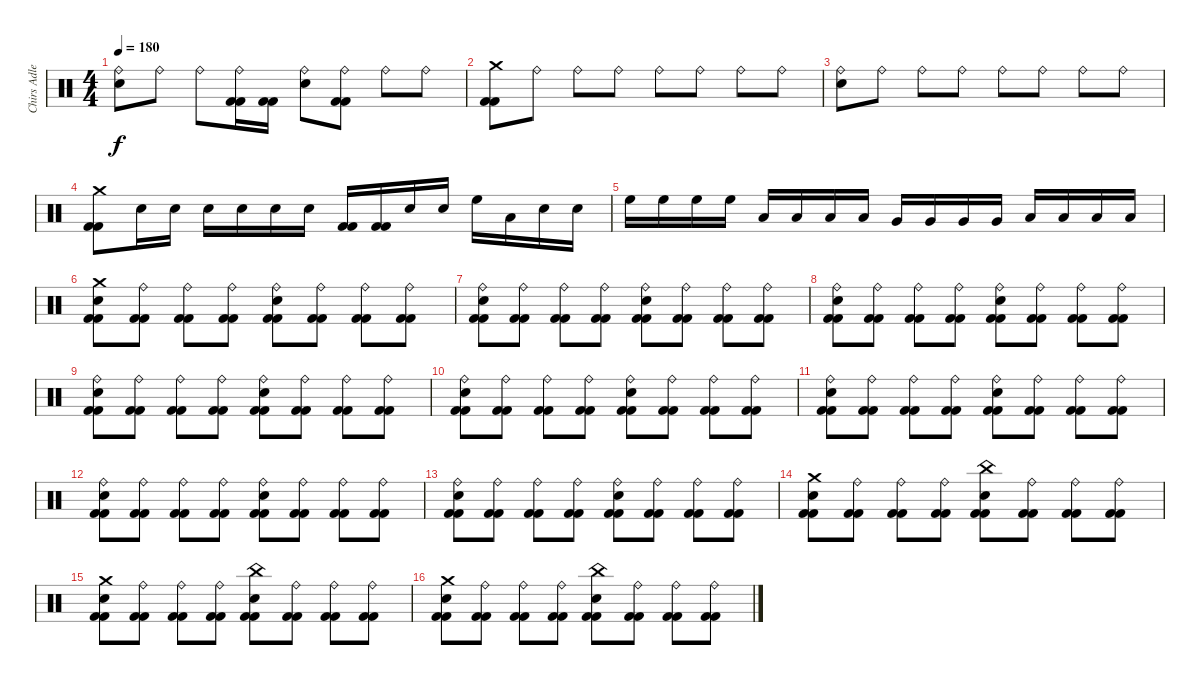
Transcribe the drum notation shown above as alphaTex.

\track ("Chirs Adler" "Chirs Adle") {instrument percussion}
\staff {score}
\articulation defaults
\ts (4 4)
\tempo 180
\clef neutral
\ks c
("Ride (bell)" "Electric Snare (hit)").8{dy f} "Ride (bell)".8 "Ride (bell)".8 ("Ride (bell)" "Kick (hit) 2" "Kick (hit) 2").16 ("Kick (hit) 2" "Kick (hit) 2").16 ("Ride (bell)" "Electric Snare (hit)").8 ("Ride (bell)" "Kick (hit) 2" "Kick (hit) 2").8 "Ride (bell)".8 "Ride (bell)".8 |
("Crash medium (hit)" "Kick (hit) 2" "Kick (hit) 2").8 "Ride (bell)".8 "Ride (bell)".8 "Ride (bell)".8 "Ride (bell)".8 "Ride (bell)".8 "Ride (bell)".8 "Ride (bell)".8 |
("Ride (bell)" "Electric Snare (hit)").8 "Ride (bell)".8 "Ride (bell)".8 "Ride (bell)".8 "Ride (bell)".8 "Ride (bell)".8 "Ride (bell)".8 "Ride (bell)".8 |
("Crash medium (hit)" "Kick (hit) 2" "Kick (hit) 2").8 "Electric Snare (hit)".16 "Electric Snare (hit)".16 "Electric Snare (hit)".16 "Electric Snare (hit)".16 "Electric Snare (hit)".16 "Electric Snare (hit)".16 ("Kick (hit) 2" "Kick (hit) 2").16 ("Kick (hit) 2" "Kick (hit) 2").16 "Electric Snare (hit)".16 "Electric Snare (hit)".16 "High Floor Tom (hit)".16 "Low Tom (hit)".16 "Electric Snare (hit)".16 "Electric Snare (hit)".16 |
"High Floor Tom (hit)".16 "High Floor Tom (hit)".16 "High Floor Tom (hit)".16 "High Floor Tom (hit)".16 "Low Tom (hit)".16 "Low Tom (hit)".16 "Low Tom (hit)".16 "Low Tom (hit)".16 "Very Low Tom (hit)".16 "Very Low Tom (hit)".16 "Very Low Tom (hit)".16 "Very Low Tom (hit)".16 "Low Floor Tom (hit)".16 "Low Floor Tom (hit)".16 "Low Floor Tom (hit)".16 "Low Floor Tom (hit)".16 |
("Crash medium (hit)" "Electric Snare (hit)" "Kick (hit) 2" "Kick (hit) 2").8 ("Ride (bell)" "Kick (hit) 2" "Kick (hit) 2").8 ("Ride (bell)" "Kick (hit) 2" "Kick (hit) 2").8 ("Ride (bell)" "Kick (hit) 2" "Kick (hit) 2").8 ("Ride (bell)" "Electric Snare (hit)" "Kick (hit) 2" "Kick (hit) 2").8 ("Ride (bell)" "Kick (hit) 2" "Kick (hit) 2").8 ("Ride (bell)" "Kick (hit) 2" "Kick (hit) 2").8 ("Ride (bell)" "Kick (hit) 2" "Kick (hit) 2").8 |
("Ride (bell)" "Electric Snare (hit)" "Kick (hit) 2" "Kick (hit) 2").8 ("Ride (bell)" "Kick (hit) 2" "Kick (hit) 2").8 ("Ride (bell)" "Kick (hit) 2" "Kick (hit) 2").8 ("Ride (bell)" "Kick (hit) 2" "Kick (hit) 2").8 ("Ride (bell)" "Electric Snare (hit)" "Kick (hit) 2" "Kick (hit) 2").8 ("Ride (bell)" "Kick (hit) 2" "Kick (hit) 2").8 ("Ride (bell)" "Kick (hit) 2" "Kick (hit) 2").8 ("Ride (bell)" "Kick (hit) 2" "Kick (hit) 2").8 |
("Ride (bell)" "Electric Snare (hit)" "Kick (hit) 2" "Kick (hit) 2").8 ("Ride (bell)" "Kick (hit) 2" "Kick (hit) 2").8 ("Ride (bell)" "Kick (hit) 2" "Kick (hit) 2").8 ("Ride (bell)" "Kick (hit) 2" "Kick (hit) 2").8 ("Ride (bell)" "Electric Snare (hit)" "Kick (hit) 2" "Kick (hit) 2").8 ("Ride (bell)" "Kick (hit) 2" "Kick (hit) 2").8 ("Ride (bell)" "Kick (hit) 2" "Kick (hit) 2").8 ("Ride (bell)" "Kick (hit) 2" "Kick (hit) 2").8 |
("Ride (bell)" "Electric Snare (hit)" "Kick (hit) 2" "Kick (hit) 2").8 ("Ride (bell)" "Kick (hit) 2" "Kick (hit) 2").8 ("Ride (bell)" "Kick (hit) 2" "Kick (hit) 2").8 ("Ride (bell)" "Kick (hit) 2" "Kick (hit) 2").8 ("Ride (bell)" "Electric Snare (hit)" "Kick (hit) 2" "Kick (hit) 2").8 ("Ride (bell)" "Kick (hit) 2" "Kick (hit) 2").8 ("Ride (bell)" "Kick (hit) 2" "Kick (hit) 2").8 ("Ride (bell)" "Kick (hit) 2" "Kick (hit) 2").8 |
("Ride (bell)" "Electric Snare (hit)" "Kick (hit) 2" "Kick (hit) 2").8 ("Ride (bell)" "Kick (hit) 2" "Kick (hit) 2").8 ("Ride (bell)" "Kick (hit) 2" "Kick (hit) 2").8 ("Ride (bell)" "Kick (hit) 2" "Kick (hit) 2").8 ("Ride (bell)" "Electric Snare (hit)" "Kick (hit) 2" "Kick (hit) 2").8 ("Ride (bell)" "Kick (hit) 2" "Kick (hit) 2").8 ("Ride (bell)" "Kick (hit) 2" "Kick (hit) 2").8 ("Ride (bell)" "Kick (hit) 2" "Kick (hit) 2").8 |
("Ride (bell)" "Electric Snare (hit)" "Kick (hit) 2" "Kick (hit) 2").8 ("Ride (bell)" "Kick (hit) 2" "Kick (hit) 2").8 ("Ride (bell)" "Kick (hit) 2" "Kick (hit) 2").8 ("Ride (bell)" "Kick (hit) 2" "Kick (hit) 2").8 ("Ride (bell)" "Electric Snare (hit)" "Kick (hit) 2" "Kick (hit) 2").8 ("Ride (bell)" "Kick (hit) 2" "Kick (hit) 2").8 ("Ride (bell)" "Kick (hit) 2" "Kick (hit) 2").8 ("Ride (bell)" "Kick (hit) 2" "Kick (hit) 2").8 |
("Ride (bell)" "Electric Snare (hit)" "Kick (hit) 2" "Kick (hit) 2").8 ("Ride (bell)" "Kick (hit) 2" "Kick (hit) 2").8 ("Ride (bell)" "Kick (hit) 2" "Kick (hit) 2").8 ("Ride (bell)" "Kick (hit) 2" "Kick (hit) 2").8 ("Ride (bell)" "Electric Snare (hit)" "Kick (hit) 2" "Kick (hit) 2").8 ("Ride (bell)" "Kick (hit) 2" "Kick (hit) 2").8 ("Ride (bell)" "Kick (hit) 2" "Kick (hit) 2").8 ("Ride (bell)" "Kick (hit) 2" "Kick (hit) 2").8 |
("Ride (bell)" "Electric Snare (hit)" "Kick (hit) 2" "Kick (hit) 2").8 ("Ride (bell)" "Kick (hit) 2" "Kick (hit) 2").8 ("Ride (bell)" "Kick (hit) 2" "Kick (hit) 2").8 ("Ride (bell)" "Kick (hit) 2" "Kick (hit) 2").8 ("Ride (bell)" "Electric Snare (hit)" "Kick (hit) 2" "Kick (hit) 2").8 ("Ride (bell)" "Kick (hit) 2" "Kick (hit) 2").8 ("Ride (bell)" "Kick (hit) 2" "Kick (hit) 2").8 ("Ride (bell)" "Kick (hit) 2" "Kick (hit) 2").8 |
("Crash medium (hit)" "Electric Snare (hit)" "Kick (hit) 2" "Kick (hit) 2").8 ("Ride (bell)" "Kick (hit) 2" "Kick (hit) 2").8 ("Ride (bell)" "Kick (hit) 2" "Kick (hit) 2").8 ("Ride (bell)" "Kick (hit) 2" "Kick (hit) 2").8 ("China (hit)" "Electric Snare (hit)" "Kick (hit) 2" "Kick (hit) 2").8 ("Ride (bell)" "Kick (hit) 2" "Kick (hit) 2").8 ("Ride (bell)" "Kick (hit) 2" "Kick (hit) 2").8 ("Ride (bell)" "Kick (hit) 2" "Kick (hit) 2").8 |
("Crash medium (hit)" "Electric Snare (hit)" "Kick (hit) 2" "Kick (hit) 2").8 ("Ride (bell)" "Kick (hit) 2" "Kick (hit) 2").8 ("Ride (bell)" "Kick (hit) 2" "Kick (hit) 2").8 ("Ride (bell)" "Kick (hit) 2" "Kick (hit) 2").8 ("China (hit)" "Electric Snare (hit)" "Kick (hit) 2" "Kick (hit) 2").8 ("Ride (bell)" "Kick (hit) 2" "Kick (hit) 2").8 ("Ride (bell)" "Kick (hit) 2" "Kick (hit) 2").8 ("Ride (bell)" "Kick (hit) 2" "Kick (hit) 2").8 |
("Crash medium (hit)" "Electric Snare (hit)" "Kick (hit) 2" "Kick (hit) 2").8 ("Ride (bell)" "Kick (hit) 2" "Kick (hit) 2").8 ("Ride (bell)" "Kick (hit) 2" "Kick (hit) 2").8 ("Ride (bell)" "Kick (hit) 2" "Kick (hit) 2").8 ("China (hit)" "Electric Snare (hit)" "Kick (hit) 2" "Kick (hit) 2").8 ("Ride (bell)" "Kick (hit) 2" "Kick (hit) 2").8 ("Ride (bell)" "Kick (hit) 2" "Kick (hit) 2").8 ("Ride (bell)" "Kick (hit) 2" "Kick (hit) 2").8
